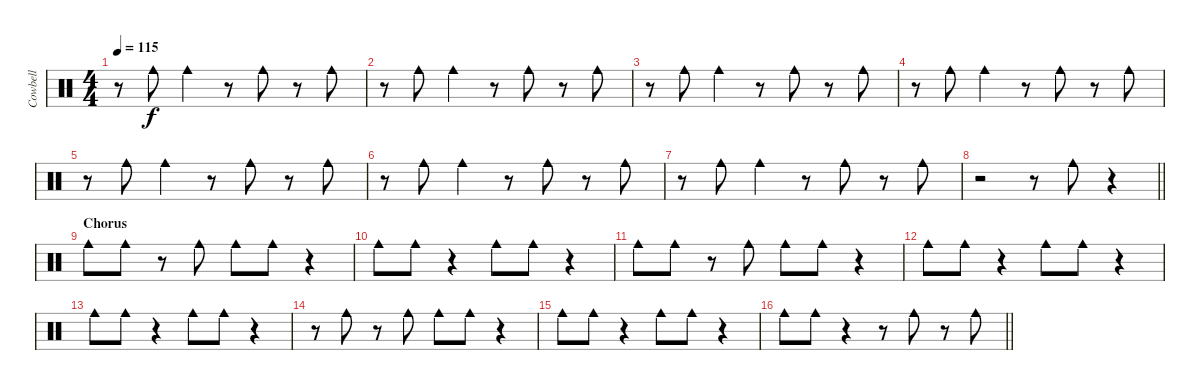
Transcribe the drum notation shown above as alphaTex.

\track ("Cowbell" "Cowbell") {instrument percussion}
\staff {score}
\articulation defaults
\ts (4 4)
\tempo 115
\clef neutral
\ks c
r.8{dy f} "Cowbell medium (hit)".8 "Cowbell medium (hit)".4 r.8 "Cowbell medium (hit)".8 r.8 "Cowbell medium (hit)".8 |
r.8 "Cowbell medium (hit)".8 "Cowbell medium (hit)".4 r.8 "Cowbell medium (hit)".8 r.8 "Cowbell medium (hit)".8 |
r.8 "Cowbell medium (hit)".8 "Cowbell medium (hit)".4 r.8 "Cowbell medium (hit)".8 r.8 "Cowbell medium (hit)".8 |
r.8 "Cowbell medium (hit)".8 "Cowbell medium (hit)".4 r.8 "Cowbell medium (hit)".8 r.8 "Cowbell medium (hit)".8 |
r.8 "Cowbell medium (hit)".8 "Cowbell medium (hit)".4 r.8 "Cowbell medium (hit)".8 r.8 "Cowbell medium (hit)".8 |
r.8 "Cowbell medium (hit)".8 "Cowbell medium (hit)".4 r.8 "Cowbell medium (hit)".8 r.8 "Cowbell medium (hit)".8 |
r.8 "Cowbell medium (hit)".8 "Cowbell medium (hit)".4 r.8 "Cowbell medium (hit)".8 r.8 "Cowbell medium (hit)".8 |
\barLineRight lightlight
r.2 r.8 "Cowbell medium (hit)".8 r.4 |
\section ("" "Chorus")
"Cowbell medium (hit)".8 "Cowbell medium (hit)".8 r.8 "Cowbell medium (hit)".8 "Cowbell medium (hit)".8 "Cowbell medium (hit)".8 r.4 |
"Cowbell medium (hit)".8 "Cowbell medium (hit)".8 r.4 "Cowbell medium (hit)".8 "Cowbell medium (hit)".8 r.4 |
"Cowbell medium (hit)".8 "Cowbell medium (hit)".8 r.8 "Cowbell medium (hit)".8 "Cowbell medium (hit)".8 "Cowbell medium (hit)".8 r.4 |
"Cowbell medium (hit)".8 "Cowbell medium (hit)".8 r.4 "Cowbell medium (hit)".8 "Cowbell medium (hit)".8 r.4 |
"Cowbell medium (hit)".8 "Cowbell medium (hit)".8 r.4 "Cowbell medium (hit)".8 "Cowbell medium (hit)".8 r.4 |
r.8 "Cowbell medium (hit)".8 r.8 "Cowbell medium (hit)".8 "Cowbell medium (hit)".8 "Cowbell medium (hit)".8 r.4 |
"Cowbell medium (hit)".8 "Cowbell medium (hit)".8 r.4 "Cowbell medium (hit)".8 "Cowbell medium (hit)".8 r.4 |
\barLineRight lightlight "Cowbell medium (hit)".8 "Cowbell medium (hit)".8
r.4 r.8 "Cowbell medium (hit)".8 r.8 "Cowbell medium (hit)".8
